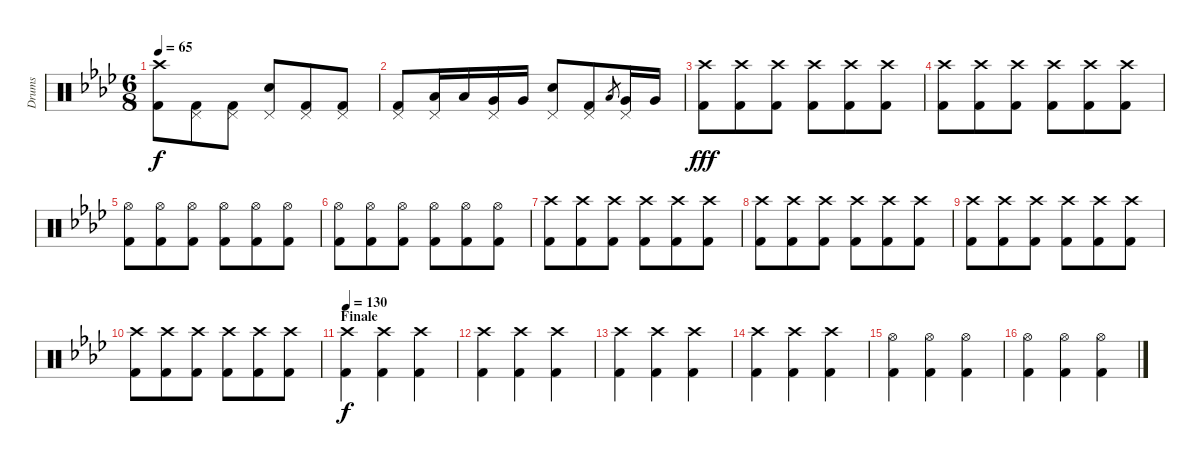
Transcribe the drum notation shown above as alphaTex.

\track ("Drums" "Drums") {instrument percussion}
\staff {score}
\articulation defaults
\ts (6 8)
\tempo 65
\clef neutral
\ks ab
("Crash high (hit)" "Kick (hit) 2").8{dy f} ("Pedal Hi-Hat (hit)" "Kick (hit) 2").8 ("Pedal Hi-Hat (hit)" "Kick (hit) 2").8 ("Pedal Hi-Hat (hit)" "Electric Snare (hit)").8 ("Pedal Hi-Hat (hit)" "Kick (hit) 2").8 ("Pedal Hi-Hat (hit)" "Kick (hit) 2").8 |
("Pedal Hi-Hat (hit)" "Kick (hit) 2").8 ("Pedal Hi-Hat (hit)" "Low Tom (hit)").16 "Low Tom (hit)".16 ("Pedal Hi-Hat (hit)" "Very Low Tom (hit)").16 "Very Low Tom (hit)".16 ("Pedal Hi-Hat (hit)" "Electric Snare (hit)").8 ("Pedal Hi-Hat (hit)" "Kick (hit) 2").8 "Low Tom (hit)".8{gr} ("Pedal Hi-Hat (hit)" "Very Low Tom (hit)").16 "Very Low Tom (hit)".16 |
("Crash high (hit)" "Kick (hit) 2").8{dy fff} ("Crash high (hit)" "Kick (hit) 2").8 ("Crash high (hit)" "Kick (hit) 2").8 ("Crash high (hit)" "Kick (hit) 2").8 ("Crash high (hit)" "Kick (hit) 2").8 ("Crash high (hit)" "Kick (hit) 2").8 |
("Crash high (hit)" "Kick (hit) 2").8 ("Crash high (hit)" "Kick (hit) 2").8 ("Crash high (hit)" "Kick (hit) 2").8 ("Crash high (hit)" "Kick (hit) 2").8 ("Crash high (hit)" "Kick (hit) 2").8 ("Crash high (hit)" "Kick (hit) 2").8 |
("Hi-Hat (open)" "Kick (hit) 2").8 ("Hi-Hat (open)" "Kick (hit) 2").8 ("Hi-Hat (open)" "Kick (hit) 2").8 ("Hi-Hat (open)" "Kick (hit) 2").8 ("Hi-Hat (open)" "Kick (hit) 2").8 ("Hi-Hat (open)" "Kick (hit) 2").8 |
("Hi-Hat (open)" "Kick (hit) 2").8 ("Hi-Hat (open)" "Kick (hit) 2").8 ("Hi-Hat (open)" "Kick (hit) 2").8 ("Hi-Hat (open)" "Kick (hit) 2").8 ("Hi-Hat (open)" "Kick (hit) 2").8 ("Hi-Hat (open)" "Kick (hit) 2").8 |
("Crash high (hit)" "Kick (hit) 2").8 ("Crash high (hit)" "Kick (hit) 2").8 ("Crash high (hit)" "Kick (hit) 2").8 ("Crash high (hit)" "Kick (hit) 2").8 ("Crash high (hit)" "Kick (hit) 2").8 ("Crash high (hit)" "Kick (hit) 2").8 |
("Crash high (hit)" "Kick (hit) 2").8 ("Crash high (hit)" "Kick (hit) 2").8 ("Crash high (hit)" "Kick (hit) 2").8 ("Crash high (hit)" "Kick (hit) 2").8 ("Crash high (hit)" "Kick (hit) 2").8 ("Crash high (hit)" "Kick (hit) 2").8 |
("Crash high (hit)" "Kick (hit) 2").8 ("Crash high (hit)" "Kick (hit) 2").8 ("Crash high (hit)" "Kick (hit) 2").8 ("Crash high (hit)" "Kick (hit) 2").8 ("Crash high (hit)" "Kick (hit) 2").8 ("Crash high (hit)" "Kick (hit) 2").8 |
("Crash high (hit)" "Kick (hit) 2").8 ("Crash high (hit)" "Kick (hit) 2").8 ("Crash high (hit)" "Kick (hit) 2").8 ("Crash high (hit)" "Kick (hit) 2").8 ("Crash high (hit)" "Kick (hit) 2").8 ("Crash high (hit)" "Kick (hit) 2").8 |
\section ("" "Finale")
\tempo 130
("Crash high (hit)" "Kick (hit) 2").4{dy f} ("Crash high (hit)" "Kick (hit) 2").4 ("Crash high (hit)" "Kick (hit) 2").4 |
("Crash high (hit)" "Kick (hit) 2").4 ("Crash high (hit)" "Kick (hit) 2").4 ("Crash high (hit)" "Kick (hit) 2").4 |
("Crash high (hit)" "Kick (hit) 2").4 ("Crash high (hit)" "Kick (hit) 2").4 ("Crash high (hit)" "Kick (hit) 2").4 |
("Crash high (hit)" "Kick (hit) 2").4 ("Crash high (hit)" "Kick (hit) 2").4 ("Crash high (hit)" "Kick (hit) 2").4 |
("Hi-Hat (open)" "Kick (hit) 2").4 ("Hi-Hat (open)" "Kick (hit) 2").4 ("Hi-Hat (open)" "Kick (hit) 2").4 |
("Hi-Hat (open)" "Kick (hit) 2").4 ("Hi-Hat (open)" "Kick (hit) 2").4 ("Hi-Hat (open)" "Kick (hit) 2").4
